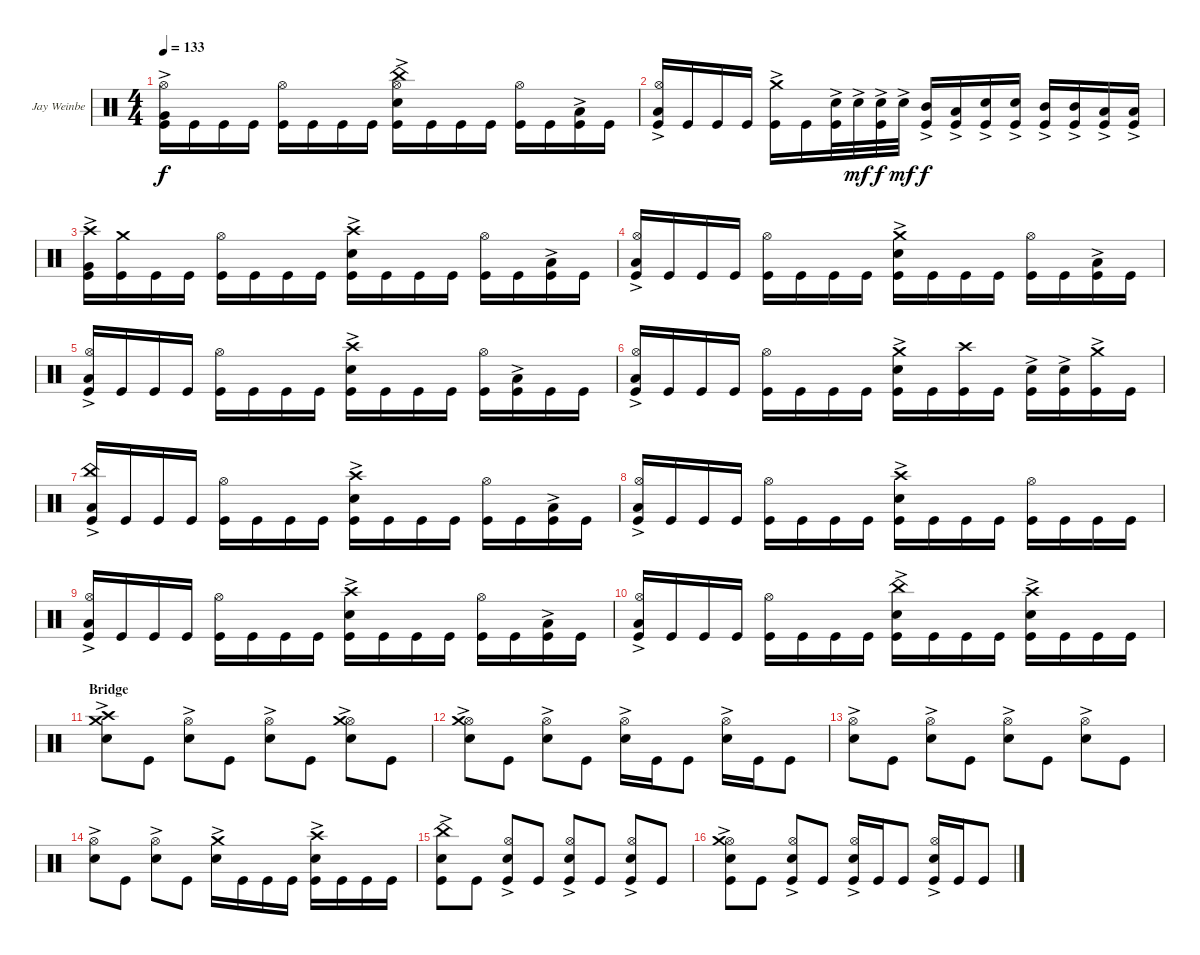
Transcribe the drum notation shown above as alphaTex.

\bracketExtendMode groupsimilarinstruments
\firstSystemTrackNameOrientation horizontal
\otherSystemsTrackNameOrientation horizontal
\track ("Jay Weinberg" "Jay Weinbe") {instrument percussion}
\staff {score}
\articulation defaults
\ts (4 4)
\tempo 133
\clef neutral
\ks c
("Kick (hit)" "Very Low Tom (hit)"{ac} "Hi-Hat (open)").16{dy f} "Kick (hit)".16 "Kick (hit)".16 "Kick (hit)".16 ("Kick (hit)" "Hi-Hat (open)").16 "Kick (hit)".16 "Kick (hit)".16 "Kick (hit)".16 ("Kick (hit)" "Snare (hit) 2"{ac} "Hi-Hat (open)" "China (hit)").16 "Kick (hit)".16 "Kick (hit)".16 "Kick (hit)".16 ("Kick (hit)" "Hi-Hat (open)").16 "Kick (hit)".16 ("Kick (hit)" "Low Tom (hit)"{ac}).16 "Kick (hit)".16 |
("Kick (hit)" "Hi-Hat (open)" "Low Tom (hit)"{ac}).16 "Kick (hit)".16 "Kick (hit)".16 "Kick (hit)".16 ("Kick (hit)" "Crash medium (hit)"{ac}).16 "Kick (hit)".16 ("Kick (hit)" "Snare (hit) 2"{ac}).32 "Snare (hit) 2"{ac}.32{dy mf} ("Kick (hit)" "Snare (hit) 2"{ac}).32{dy f} "Snare (hit) 2"{ac}.32{dy mf} ("Kick (hit)" "Mid Tom (hit)"{ac}).16{dy f} ("Kick (hit)" "Low Tom (hit)"{ac}).16 ("Kick (hit)" "Snare (hit) 2"{ac}).16 ("Kick (hit)" "Snare (hit) 2"{ac}).16 ("Kick (hit)" "Mid Tom (hit)"{ac}).16 ("Kick (hit)" "Mid Tom (hit)"{ac}).16 ("Kick (hit)" "Low Tom (hit)"{ac}).16 ("Kick (hit)" "Low Tom (hit)"{ac}).16 |
("Kick (hit)" "Crash high (hit)" "Very Low Tom (hit)"{ac}).16 ("Kick (hit)" "Crash medium (hit)").16 "Kick (hit)".16 "Kick (hit)".16 ("Kick (hit)" "Hi-Hat (open)").16 "Kick (hit)".16 "Kick (hit)".16 "Kick (hit)".16 ("Kick (hit)" "Snare (hit) 2"{ac} "Crash high (hit)").16 "Kick (hit)".16 "Kick (hit)".16 "Kick (hit)".16 ("Kick (hit)" "Hi-Hat (open)").16 "Kick (hit)".16 ("Kick (hit)" "Low Tom (hit)"{ac}).16 "Kick (hit)".16 |
("Kick (hit)" "Low Tom (hit)"{ac} "Hi-Hat (open)").16 "Kick (hit)".16 "Kick (hit)".16 "Kick (hit)".16 ("Kick (hit)" "Hi-Hat (open)").16 "Kick (hit)".16 "Kick (hit)".16 "Kick (hit)".16 ("Kick (hit)" "Snare (hit) 2"{ac} "Crash medium (hit)").16 "Kick (hit)".16 "Kick (hit)".16 "Kick (hit)".16 ("Kick (hit)" "Hi-Hat (open)").16 "Kick (hit)".16 ("Kick (hit)" "Low Tom (hit)"{ac}).16 "Kick (hit)".16 |
("Kick (hit)" "Hi-Hat (open)" "Low Tom (hit)"{ac}).16 "Kick (hit)".16 "Kick (hit)".16 "Kick (hit)".16 ("Kick (hit)" "Hi-Hat (open)").16 "Kick (hit)".16 "Kick (hit)".16 "Kick (hit)".16 ("Kick (hit)" "Crash high (hit)" "Snare (hit) 2"{ac}).16 "Kick (hit)".16 "Kick (hit)".16 "Kick (hit)".16 ("Kick (hit)" "Hi-Hat (open)").16 ("Kick (hit)" "Low Tom (hit)"{ac}).16 "Kick (hit)".16 "Kick (hit)".16 |
("Kick (hit)" "Hi-Hat (open)" "Low Tom (hit)"{ac}).16 "Kick (hit)".16 "Kick (hit)".16 "Kick (hit)".16 ("Kick (hit)" "Hi-Hat (open)").16 "Kick (hit)".16 "Kick (hit)".16 "Kick (hit)".16 ("Kick (hit)" "Crash medium (hit)" "Snare (hit) 2"{ac}).16 "Kick (hit)".16 ("Kick (hit)" "Crash high (hit)").16 "Kick (hit)".16 ("Kick (hit)" "Snare (hit) 2"{ac}).16 ("Kick (hit)" "Snare (hit) 2"{ac}).16 ("Kick (hit)" "Crash medium (hit)"{ac}).16 "Kick (hit)".16 |
("Kick (hit)" "China (hit)"{ac} "Low Tom (hit)"{ac}).16 "Kick (hit)".16 "Kick (hit)".16 "Kick (hit)".16 ("Kick (hit)" "Hi-Hat (open)").16 "Kick (hit)".16 "Kick (hit)".16 "Kick (hit)".16 ("Kick (hit)" "Crash high (hit)" "Snare (hit) 2"{ac}).16 "Kick (hit)".16 "Kick (hit)".16 "Kick (hit)".16 ("Kick (hit)" "Hi-Hat (open)").16 "Kick (hit)".16 ("Kick (hit)" "Low Tom (hit)"{ac}).16 "Kick (hit)".16 |
("Kick (hit)" "Hi-Hat (open)" "Low Tom (hit)"{ac}).16 "Kick (hit)".16 "Kick (hit)".16 "Kick (hit)".16 ("Kick (hit)" "Hi-Hat (open)").16 "Kick (hit)".16 "Kick (hit)".16 "Kick (hit)".16 ("Kick (hit)" "Crash high (hit)" "Snare (hit) 2"{ac}).16 "Kick (hit)".16 "Kick (hit)".16 "Kick (hit)".16 ("Kick (hit)" "Hi-Hat (open)").16 "Kick (hit)".16 "Kick (hit)".16 "Kick (hit)".16 |
("Kick (hit)" "Hi-Hat (open)" "Low Tom (hit)"{ac}).16 "Kick (hit)".16 "Kick (hit)".16 "Kick (hit)".16 ("Kick (hit)" "Hi-Hat (open)").16 "Kick (hit)".16 "Kick (hit)".16 "Kick (hit)".16 ("Kick (hit)" "Crash high (hit)" "Snare (hit) 2"{ac}).16 "Kick (hit)".16 "Kick (hit)".16 "Kick (hit)".16 ("Kick (hit)" "Hi-Hat (open)").16 "Kick (hit)".16 ("Kick (hit)" "Low Tom (hit)"{ac}).16 "Kick (hit)".16 |
("Kick (hit)" "Low Tom (hit)"{ac} "Hi-Hat (open)").16 "Kick (hit)".16 "Kick (hit)".16 "Kick (hit)".16 ("Kick (hit)" "Hi-Hat (open)").16 "Kick (hit)".16 "Kick (hit)".16 "Kick (hit)".16 ("Kick (hit)" "Snare (hit) 2"{ac} "China (hit)"{ac}).16 "Kick (hit)".16 "Kick (hit)".16 "Kick (hit)".16 ("Kick (hit)" "Snare (hit) 2"{ac} "Crash high (hit)").16 "Kick (hit)".16 "Kick (hit)".16 "Kick (hit)".16 |
\section ("" "Bridge")
("Snare (hit) 2"{ac} "Crash medium (hit)" "Crash high (hit)").8 "Kick (hit)".8 ("Snare (hit) 2"{ac} "Hi-Hat (open)").8 "Kick (hit)".8 ("Snare (hit) 2"{ac} "Hi-Hat (open)").8 "Kick (hit)".8 ("Snare (hit) 2"{ac} "Hi-Hat (open)" "Crash medium (hit)").8 "Kick (hit)".8 |
("Snare (hit) 2"{ac} "Hi-Hat (open)" "Crash medium (hit)").8 "Kick (hit)".8 ("Snare (hit) 2"{ac} "Hi-Hat (open)").8 "Kick (hit)".8 ("Snare (hit) 2"{ac} "Hi-Hat (open)").16 "Kick (hit)".16 "Kick (hit)".8 ("Snare (hit) 2"{ac} "Hi-Hat (open)").16 "Kick (hit)".16 "Kick (hit)".8 |
("Snare (hit) 2"{ac} "Hi-Hat (open)").8 "Kick (hit)".8 ("Snare (hit) 2"{ac} "Hi-Hat (open)").8 "Kick (hit)".8 ("Snare (hit) 2"{ac} "Hi-Hat (open)").8 "Kick (hit)".8 ("Snare (hit) 2"{ac} "Hi-Hat (open)").8 "Kick (hit)".8 |
("Snare (hit) 2"{ac} "Hi-Hat (open)").8 "Kick (hit)".8 ("Snare (hit) 2"{ac} "Hi-Hat (open)").8 "Kick (hit)".8 ("Snare (hit) 2"{ac} "Crash medium (hit)").16 "Kick (hit)".16 "Kick (hit)".16 "Kick (hit)".16 ("Snare (hit) 2"{ac} "Crash high (hit)" "Kick (hit)").16 "Kick (hit)".16 "Kick (hit)".16 "Kick (hit)".16 |
("China (hit)"{ac} "Snare (hit) 2"{ac} "Kick (hit)").8 "Kick (hit)".8 ("Snare (hit) 2"{ac} "Hi-Hat (open)" "Kick (hit)").8 "Kick (hit)".8 ("Snare (hit) 2"{ac} "Hi-Hat (open)" "Kick (hit)").8 "Kick (hit)".8 ("Snare (hit) 2"{ac} "Hi-Hat (open)" "Kick (hit)").8 "Kick (hit)".8 |
("Snare (hit) 2"{ac} "Hi-Hat (open)" "Crash medium (hit)"{ac} "Kick (hit)").8 "Kick (hit)".8 ("Snare (hit) 2"{ac} "Hi-Hat (open)" "Kick (hit)").8 "Kick (hit)".8 ("Snare (hit) 2"{ac} "Hi-Hat (open)" "Kick (hit)").16 "Kick (hit)".16 "Kick (hit)".8 ("Snare (hit) 2"{ac} "Hi-Hat (open)" "Kick (hit)").16 "Kick (hit)".16 "Kick (hit)".8
